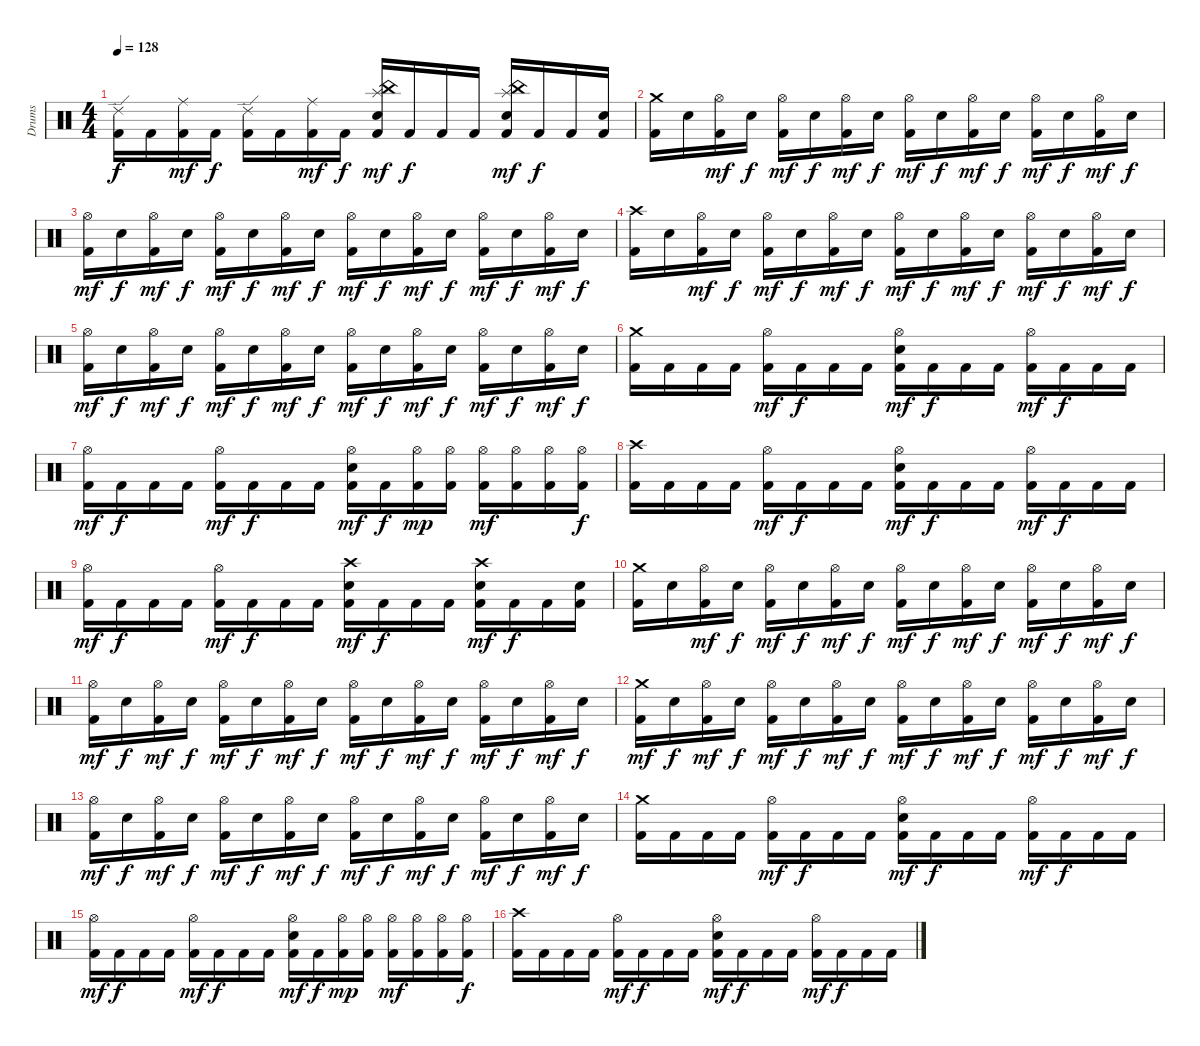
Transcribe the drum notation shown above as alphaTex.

\track ("Drums" "Drums") {instrument percussion}
\staff {score}
\articulation defaults
\ts (4 4)
\tempo 128
\clef neutral
\ks c
("Ride (edge) 2" "Kick (hit) 2").16{dy f} "Kick (hit) 2".16 ("Ride (middle)" "Kick (hit) 2").16{dy mf} "Kick (hit) 2".16{dy f} ("Ride (edge) 2" "Kick (hit) 2").16 "Kick (hit) 2".16 ("Ride (middle)" "Kick (hit) 2").16{dy mf} "Kick (hit) 2".16{dy f} ("China (hit)" "Splash (hit)" "Electric Snare (hit)" "Kick (hit) 2").16{dy mf} "Kick (hit) 2".16{dy f} "Kick (hit) 2".16 "Kick (hit) 2".16 ("China (hit)" "Splash (hit)" "Electric Snare (hit)" "Kick (hit) 2").16{dy mf} "Kick (hit) 2".16{dy f} "Kick (hit) 2".16 ("Electric Snare (hit)" "Kick (hit) 2").16 |
("Crash medium (hit)" "Kick (hit) 2").16 "Electric Snare (hit)".16 ("Hi-Hat (open)" "Kick (hit) 2").16{dy mf} "Electric Snare (hit)".16{dy f} ("Hi-Hat (open)" "Kick (hit) 2").16{dy mf} "Electric Snare (hit)".16{dy f} ("Hi-Hat (open)" "Kick (hit) 2").16{dy mf} "Electric Snare (hit)".16{dy f} ("Hi-Hat (open)" "Kick (hit) 2").16{dy mf} "Electric Snare (hit)".16{dy f} ("Hi-Hat (open)" "Kick (hit) 2").16{dy mf} "Electric Snare (hit)".16{dy f} ("Hi-Hat (open)" "Kick (hit) 2").16{dy mf} "Electric Snare (hit)".16{dy f} ("Hi-Hat (open)" "Kick (hit) 2").16{dy mf} "Electric Snare (hit)".16{dy f} |
("Hi-Hat (open)" "Kick (hit) 2").16{dy mf} "Electric Snare (hit)".16{dy f} ("Hi-Hat (open)" "Kick (hit) 2").16{dy mf} "Electric Snare (hit)".16{dy f} ("Hi-Hat (open)" "Kick (hit) 2").16{dy mf} "Electric Snare (hit)".16{dy f} ("Hi-Hat (open)" "Kick (hit) 2").16{dy mf} "Electric Snare (hit)".16{dy f} ("Hi-Hat (open)" "Kick (hit) 2").16{dy mf} "Electric Snare (hit)".16{dy f} ("Hi-Hat (open)" "Kick (hit) 2").16{dy mf} "Electric Snare (hit)".16{dy f} ("Hi-Hat (open)" "Kick (hit) 2").16{dy mf} "Electric Snare (hit)".16{dy f} ("Hi-Hat (open)" "Kick (hit) 2").16{dy mf} "Electric Snare (hit)".16{dy f} |
("Crash high (hit)" "Kick (hit) 2").16 "Electric Snare (hit)".16 ("Hi-Hat (open)" "Kick (hit) 2").16{dy mf} "Electric Snare (hit)".16{dy f} ("Hi-Hat (open)" "Kick (hit) 2").16{dy mf} "Electric Snare (hit)".16{dy f} ("Hi-Hat (open)" "Kick (hit) 2").16{dy mf} "Electric Snare (hit)".16{dy f} ("Hi-Hat (open)" "Kick (hit) 2").16{dy mf} "Electric Snare (hit)".16{dy f} ("Hi-Hat (open)" "Kick (hit) 2").16{dy mf} "Electric Snare (hit)".16{dy f} ("Hi-Hat (open)" "Kick (hit) 2").16{dy mf} "Electric Snare (hit)".16{dy f} ("Hi-Hat (open)" "Kick (hit) 2").16{dy mf} "Electric Snare (hit)".16{dy f} |
("Hi-Hat (open)" "Kick (hit) 2").16{dy mf} "Electric Snare (hit)".16{dy f} ("Hi-Hat (open)" "Kick (hit) 2").16{dy mf} "Electric Snare (hit)".16{dy f} ("Hi-Hat (open)" "Kick (hit) 2").16{dy mf} "Electric Snare (hit)".16{dy f} ("Hi-Hat (open)" "Kick (hit) 2").16{dy mf} "Electric Snare (hit)".16{dy f} ("Hi-Hat (open)" "Kick (hit) 2").16{dy mf} "Electric Snare (hit)".16{dy f} ("Hi-Hat (open)" "Kick (hit) 2").16{dy mf} "Electric Snare (hit)".16{dy f} ("Hi-Hat (open)" "Kick (hit) 2").16{dy mf} "Electric Snare (hit)".16{dy f} ("Hi-Hat (open)" "Kick (hit) 2").16{dy mf} "Electric Snare (hit)".16{dy f} |
("Crash medium (hit)" "Kick (hit) 2").16 "Kick (hit) 2".16 "Kick (hit) 2".16 "Kick (hit) 2".16 ("Hi-Hat (open)" "Kick (hit) 2").16{dy mf} "Kick (hit) 2".16{dy f} "Kick (hit) 2".16 "Kick (hit) 2".16 ("Hi-Hat (open)" "Electric Snare (hit)" "Kick (hit) 2").16{dy mf} "Kick (hit) 2".16{dy f} "Kick (hit) 2".16 "Kick (hit) 2".16 ("Hi-Hat (open)" "Kick (hit) 2").16{dy mf} "Kick (hit) 2".16{dy f} "Kick (hit) 2".16 "Kick (hit) 2".16 |
("Hi-Hat (open)" "Kick (hit) 2").16{dy mf} "Kick (hit) 2".16{dy f} "Kick (hit) 2".16 "Kick (hit) 2".16 ("Hi-Hat (open)" "Kick (hit) 2").16{dy mf} "Kick (hit) 2".16{dy f} "Kick (hit) 2".16 "Kick (hit) 2".16 ("Hi-Hat (open)" "Electric Snare (hit)" "Kick (hit) 2").16{dy mf} "Kick (hit) 2".16{dy f} ("Hi-Hat (open)" "Kick (hit) 2").16{dy mp} ("Hi-Hat (open)" "Kick (hit) 2").16 ("Hi-Hat (open)" "Kick (hit) 2").16{dy mf} ("Hi-Hat (open)" "Kick (hit) 2").16 ("Hi-Hat (open)" "Kick (hit) 2").16 ("Hi-Hat (open)" "Kick (hit) 2").16{dy f} |
("Crash high (hit)" "Kick (hit) 2").16 "Kick (hit) 2".16 "Kick (hit) 2".16 "Kick (hit) 2".16 ("Hi-Hat (open)" "Kick (hit) 2").16{dy mf} "Kick (hit) 2".16{dy f} "Kick (hit) 2".16 "Kick (hit) 2".16 ("Hi-Hat (open)" "Electric Snare (hit)" "Kick (hit) 2").16{dy mf} "Kick (hit) 2".16{dy f} "Kick (hit) 2".16 "Kick (hit) 2".16 ("Hi-Hat (open)" "Kick (hit) 2").16{dy mf} "Kick (hit) 2".16{dy f} "Kick (hit) 2".16 "Kick (hit) 2".16 |
("Hi-Hat (open)" "Kick (hit) 2").16{dy mf} "Kick (hit) 2".16{dy f} "Kick (hit) 2".16 "Kick (hit) 2".16 ("Hi-Hat (open)" "Kick (hit) 2").16{dy mf} "Kick (hit) 2".16{dy f} "Kick (hit) 2".16 "Kick (hit) 2".16 ("Crash high (hit)" "Electric Snare (hit)" "Kick (hit) 2").16{dy mf} "Kick (hit) 2".16{dy f} "Kick (hit) 2".16 "Kick (hit) 2".16 ("Crash high (hit)" "Electric Snare (hit)" "Kick (hit) 2").16{dy mf} "Kick (hit) 2".16{dy f} "Kick (hit) 2".16 ("Electric Snare (hit)" "Kick (hit) 2").16 |
("Crash medium (hit)" "Kick (hit) 2").16 "Electric Snare (hit)".16 ("Hi-Hat (open)" "Kick (hit) 2").16{dy mf} "Electric Snare (hit)".16{dy f} ("Hi-Hat (open)" "Kick (hit) 2").16{dy mf} "Electric Snare (hit)".16{dy f} ("Hi-Hat (open)" "Kick (hit) 2").16{dy mf} "Electric Snare (hit)".16{dy f} ("Hi-Hat (open)" "Kick (hit) 2").16{dy mf} "Electric Snare (hit)".16{dy f} ("Hi-Hat (open)" "Kick (hit) 2").16{dy mf} "Electric Snare (hit)".16{dy f} ("Hi-Hat (open)" "Kick (hit) 2").16{dy mf} "Electric Snare (hit)".16{dy f} ("Hi-Hat (open)" "Kick (hit) 2").16{dy mf} "Electric Snare (hit)".16{dy f} |
("Hi-Hat (open)" "Kick (hit) 2").16{dy mf} "Electric Snare (hit)".16{dy f} ("Hi-Hat (open)" "Kick (hit) 2").16{dy mf} "Electric Snare (hit)".16{dy f} ("Hi-Hat (open)" "Kick (hit) 2").16{dy mf} "Electric Snare (hit)".16{dy f} ("Hi-Hat (open)" "Kick (hit) 2").16{dy mf} "Electric Snare (hit)".16{dy f} ("Hi-Hat (open)" "Kick (hit) 2").16{dy mf} "Electric Snare (hit)".16{dy f} ("Hi-Hat (open)" "Kick (hit) 2").16{dy mf} "Electric Snare (hit)".16{dy f} ("Hi-Hat (open)" "Kick (hit) 2").16{dy mf} "Electric Snare (hit)".16{dy f} ("Hi-Hat (open)" "Kick (hit) 2").16{dy mf} "Electric Snare (hit)".16{dy f} |
("Crash medium (hit)" "Kick (hit) 2").16{dy mf} "Electric Snare (hit)".16{dy f} ("Hi-Hat (open)" "Kick (hit) 2").16{dy mf} "Electric Snare (hit)".16{dy f} ("Hi-Hat (open)" "Kick (hit) 2").16{dy mf} "Electric Snare (hit)".16{dy f} ("Hi-Hat (open)" "Kick (hit) 2").16{dy mf} "Electric Snare (hit)".16{dy f} ("Hi-Hat (open)" "Kick (hit) 2").16{dy mf} "Electric Snare (hit)".16{dy f} ("Hi-Hat (open)" "Kick (hit) 2").16{dy mf} "Electric Snare (hit)".16{dy f} ("Hi-Hat (open)" "Kick (hit) 2").16{dy mf} "Electric Snare (hit)".16{dy f} ("Hi-Hat (open)" "Kick (hit) 2").16{dy mf} "Electric Snare (hit)".16{dy f} |
("Hi-Hat (open)" "Kick (hit) 2").16{dy mf} "Electric Snare (hit)".16{dy f} ("Hi-Hat (open)" "Kick (hit) 2").16{dy mf} "Electric Snare (hit)".16{dy f} ("Hi-Hat (open)" "Kick (hit) 2").16{dy mf} "Electric Snare (hit)".16{dy f} ("Hi-Hat (open)" "Kick (hit) 2").16{dy mf} "Electric Snare (hit)".16{dy f} ("Hi-Hat (open)" "Kick (hit) 2").16{dy mf} "Electric Snare (hit)".16{dy f} ("Hi-Hat (open)" "Kick (hit) 2").16{dy mf} "Electric Snare (hit)".16{dy f} ("Hi-Hat (open)" "Kick (hit) 2").16{dy mf} "Electric Snare (hit)".16{dy f} ("Hi-Hat (open)" "Kick (hit) 2").16{dy mf} "Electric Snare (hit)".16{dy f} |
("Crash medium (hit)" "Kick (hit) 2").16 "Kick (hit) 2".16 "Kick (hit) 2".16 "Kick (hit) 2".16 ("Hi-Hat (open)" "Kick (hit) 2").16{dy mf} "Kick (hit) 2".16{dy f} "Kick (hit) 2".16 "Kick (hit) 2".16 ("Hi-Hat (open)" "Electric Snare (hit)" "Kick (hit) 2").16{dy mf} "Kick (hit) 2".16{dy f} "Kick (hit) 2".16 "Kick (hit) 2".16 ("Hi-Hat (open)" "Kick (hit) 2").16{dy mf} "Kick (hit) 2".16{dy f} "Kick (hit) 2".16 "Kick (hit) 2".16 |
("Hi-Hat (open)" "Kick (hit) 2").16{dy mf} "Kick (hit) 2".16{dy f} "Kick (hit) 2".16 "Kick (hit) 2".16 ("Hi-Hat (open)" "Kick (hit) 2").16{dy mf} "Kick (hit) 2".16{dy f} "Kick (hit) 2".16 "Kick (hit) 2".16 ("Hi-Hat (open)" "Electric Snare (hit)" "Kick (hit) 2").16{dy mf} "Kick (hit) 2".16{dy f} ("Hi-Hat (open)" "Kick (hit) 2").16{dy mp} ("Hi-Hat (open)" "Kick (hit) 2").16 ("Hi-Hat (open)" "Kick (hit) 2").16{dy mf} ("Hi-Hat (open)" "Kick (hit) 2").16 ("Hi-Hat (open)" "Kick (hit) 2").16 ("Hi-Hat (open)" "Kick (hit) 2").16{dy f} |
("Crash high (hit)" "Kick (hit) 2").16 "Kick (hit) 2".16 "Kick (hit) 2".16 "Kick (hit) 2".16 ("Hi-Hat (open)" "Kick (hit) 2").16{dy mf} "Kick (hit) 2".16{dy f} "Kick (hit) 2".16 "Kick (hit) 2".16 ("Hi-Hat (open)" "Electric Snare (hit)" "Kick (hit) 2").16{dy mf} "Kick (hit) 2".16{dy f} "Kick (hit) 2".16 "Kick (hit) 2".16 ("Hi-Hat (open)" "Kick (hit) 2").16{dy mf} "Kick (hit) 2".16{dy f} "Kick (hit) 2".16 "Kick (hit) 2".16
